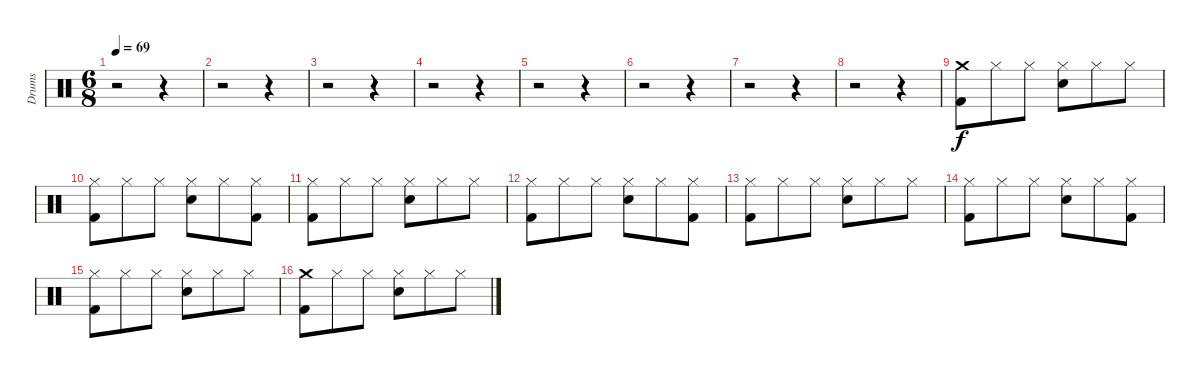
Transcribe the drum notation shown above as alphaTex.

\track ("Drums" "Drums") {instrument percussion}
\staff {score}
\articulation defaults
\ts (6 8)
\tempo 69
\clef neutral
\ks c
r.2{dy f} r.4 |
r.2 r.4 |
r.2 r.4 |
r.2 r.4 |
r.2 r.4 |
r.2 r.4 |
r.2 r.4 |
r.2 r.4 |
("Crash medium (hit)" "Kick (hit) 2").8 "Hi-Hat (closed)".8 "Hi-Hat (closed)".8 ("Hi-Hat (closed)" "Snare (hit) 2").8 "Hi-Hat (closed)".8 "Hi-Hat (closed)".8 |
("Hi-Hat (closed)" "Kick (hit) 2").8 "Hi-Hat (closed)".8 "Hi-Hat (closed)".8 ("Hi-Hat (closed)" "Snare (hit) 2").8 "Hi-Hat (closed)".8 ("Hi-Hat (closed)" "Kick (hit) 2").8 |
("Hi-Hat (closed)" "Kick (hit) 2").8 "Hi-Hat (closed)".8 "Hi-Hat (closed)".8 ("Hi-Hat (closed)" "Snare (hit) 2").8 "Hi-Hat (closed)".8 "Hi-Hat (closed)".8 |
("Hi-Hat (closed)" "Kick (hit) 2").8 "Hi-Hat (closed)".8 "Hi-Hat (closed)".8 ("Hi-Hat (closed)" "Snare (hit) 2").8 "Hi-Hat (closed)".8 ("Hi-Hat (closed)" "Kick (hit) 2").8 |
("Hi-Hat (closed)" "Kick (hit) 2").8 "Hi-Hat (closed)".8 "Hi-Hat (closed)".8 ("Hi-Hat (closed)" "Snare (hit) 2").8 "Hi-Hat (closed)".8 "Hi-Hat (closed)".8 |
("Hi-Hat (closed)" "Kick (hit) 2").8 "Hi-Hat (closed)".8 "Hi-Hat (closed)".8 ("Hi-Hat (closed)" "Snare (hit) 2").8 "Hi-Hat (closed)".8 ("Hi-Hat (closed)" "Kick (hit) 2").8 |
("Hi-Hat (closed)" "Kick (hit) 2").8 "Hi-Hat (closed)".8 "Hi-Hat (closed)".8 ("Hi-Hat (closed)" "Snare (hit) 2").8 "Hi-Hat (closed)".8 "Hi-Hat (closed)".8 |
("Crash medium (hit)" "Kick (hit) 2").8 "Hi-Hat (closed)".8 "Hi-Hat (closed)".8 ("Hi-Hat (closed)" "Snare (hit) 2").8 "Hi-Hat (closed)".8 "Hi-Hat (closed)".8
